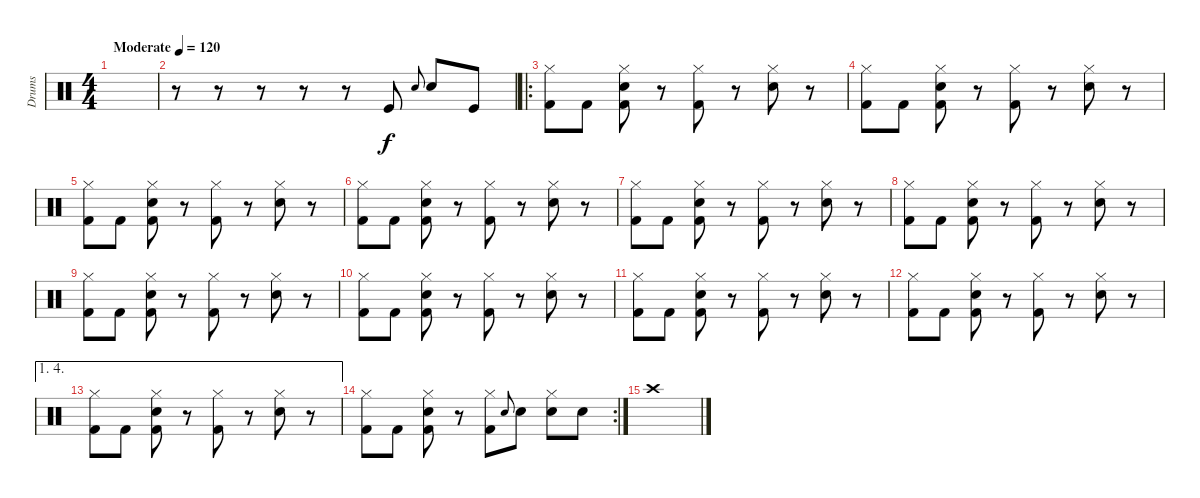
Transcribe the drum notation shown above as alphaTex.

\track ("Drums" "Drums") {instrument percussion}
\staff {score}
\articulation defaults
\ts (4 4)
\tempo (120 "Moderate")
\clef neutral
\ks c
|
r.8 r.8 r.8 r.8 r.8 "Kick (hit)".8 "Snare (hit) 2".8{gr onbeat} "Snare (hit) 2".8 "Kick (hit)".8 |
\ro
("Hi-Hat (closed)" "Kick (hit) 2").8 "Kick (hit) 2".8 ("Hi-Hat (closed)" "Electric Snare (hit)" "Kick (hit) 2").8 r.8 ("Hi-Hat (closed)" "Kick (hit) 2").8 r.8 ("Hi-Hat (closed)" "Electric Snare (hit)").8 r.8 |
("Hi-Hat (closed)" "Kick (hit) 2").8 "Kick (hit) 2".8 ("Hi-Hat (closed)" "Electric Snare (hit)" "Kick (hit) 2").8 r.8 ("Hi-Hat (closed)" "Kick (hit) 2").8 r.8 ("Hi-Hat (closed)" "Electric Snare (hit)").8 r.8 |
("Hi-Hat (closed)" "Kick (hit) 2").8 "Kick (hit) 2".8 ("Hi-Hat (closed)" "Electric Snare (hit)" "Kick (hit) 2").8 r.8 ("Hi-Hat (closed)" "Kick (hit) 2").8 r.8 ("Hi-Hat (closed)" "Electric Snare (hit)").8 r.8 |
("Hi-Hat (closed)" "Kick (hit) 2").8 "Kick (hit) 2".8 ("Hi-Hat (closed)" "Electric Snare (hit)" "Kick (hit) 2").8 r.8 ("Hi-Hat (closed)" "Kick (hit) 2").8 r.8 ("Hi-Hat (closed)" "Electric Snare (hit)").8 r.8 |
("Hi-Hat (closed)" "Kick (hit) 2").8 "Kick (hit) 2".8 ("Hi-Hat (closed)" "Electric Snare (hit)" "Kick (hit) 2").8 r.8 ("Hi-Hat (closed)" "Kick (hit) 2").8 r.8 ("Hi-Hat (closed)" "Electric Snare (hit)").8 r.8 |
("Hi-Hat (closed)" "Kick (hit) 2").8 "Kick (hit) 2".8 ("Hi-Hat (closed)" "Electric Snare (hit)" "Kick (hit) 2").8 r.8 ("Hi-Hat (closed)" "Kick (hit) 2").8 r.8 ("Hi-Hat (closed)" "Electric Snare (hit)").8 r.8 |
("Hi-Hat (closed)" "Kick (hit) 2").8 "Kick (hit) 2".8 ("Hi-Hat (closed)" "Electric Snare (hit)" "Kick (hit) 2").8 r.8 ("Hi-Hat (closed)" "Kick (hit) 2").8 r.8 ("Hi-Hat (closed)" "Electric Snare (hit)").8 r.8 |
("Hi-Hat (closed)" "Kick (hit) 2").8 "Kick (hit) 2".8 ("Hi-Hat (closed)" "Electric Snare (hit)" "Kick (hit) 2").8 r.8 ("Hi-Hat (closed)" "Kick (hit) 2").8 r.8 ("Hi-Hat (closed)" "Electric Snare (hit)").8 r.8 |
("Hi-Hat (closed)" "Kick (hit) 2").8 "Kick (hit) 2".8 ("Hi-Hat (closed)" "Electric Snare (hit)" "Kick (hit) 2").8 r.8 ("Hi-Hat (closed)" "Kick (hit) 2").8 r.8 ("Hi-Hat (closed)" "Electric Snare (hit)").8 r.8 |
("Hi-Hat (closed)" "Kick (hit) 2").8 "Kick (hit) 2".8 ("Hi-Hat (closed)" "Electric Snare (hit)" "Kick (hit) 2").8 r.8 ("Hi-Hat (closed)" "Kick (hit) 2").8 r.8 ("Hi-Hat (closed)" "Electric Snare (hit)").8 r.8 |
\ae (1 4)
("Hi-Hat (closed)" "Kick (hit) 2").8 "Kick (hit) 2".8 ("Hi-Hat (closed)" "Electric Snare (hit)" "Kick (hit) 2").8 r.8 ("Hi-Hat (closed)" "Kick (hit) 2").8 r.8 ("Hi-Hat (closed)" "Electric Snare (hit)").8 r.8 |
\rc 2
("Hi-Hat (closed)" "Kick (hit) 2").8 "Kick (hit) 2".8 ("Hi-Hat (closed)" "Electric Snare (hit)" "Kick (hit) 2").8 r.8 ("Hi-Hat (closed)" "Kick (hit) 2").8 "Electric Snare (hit)"{h}.8{gr onbeat} "Electric Snare (hit)".8 ("Hi-Hat (closed)" "Electric Snare (hit)").8 "Electric Snare (hit)".8 |
"Crash high (hit)".1
